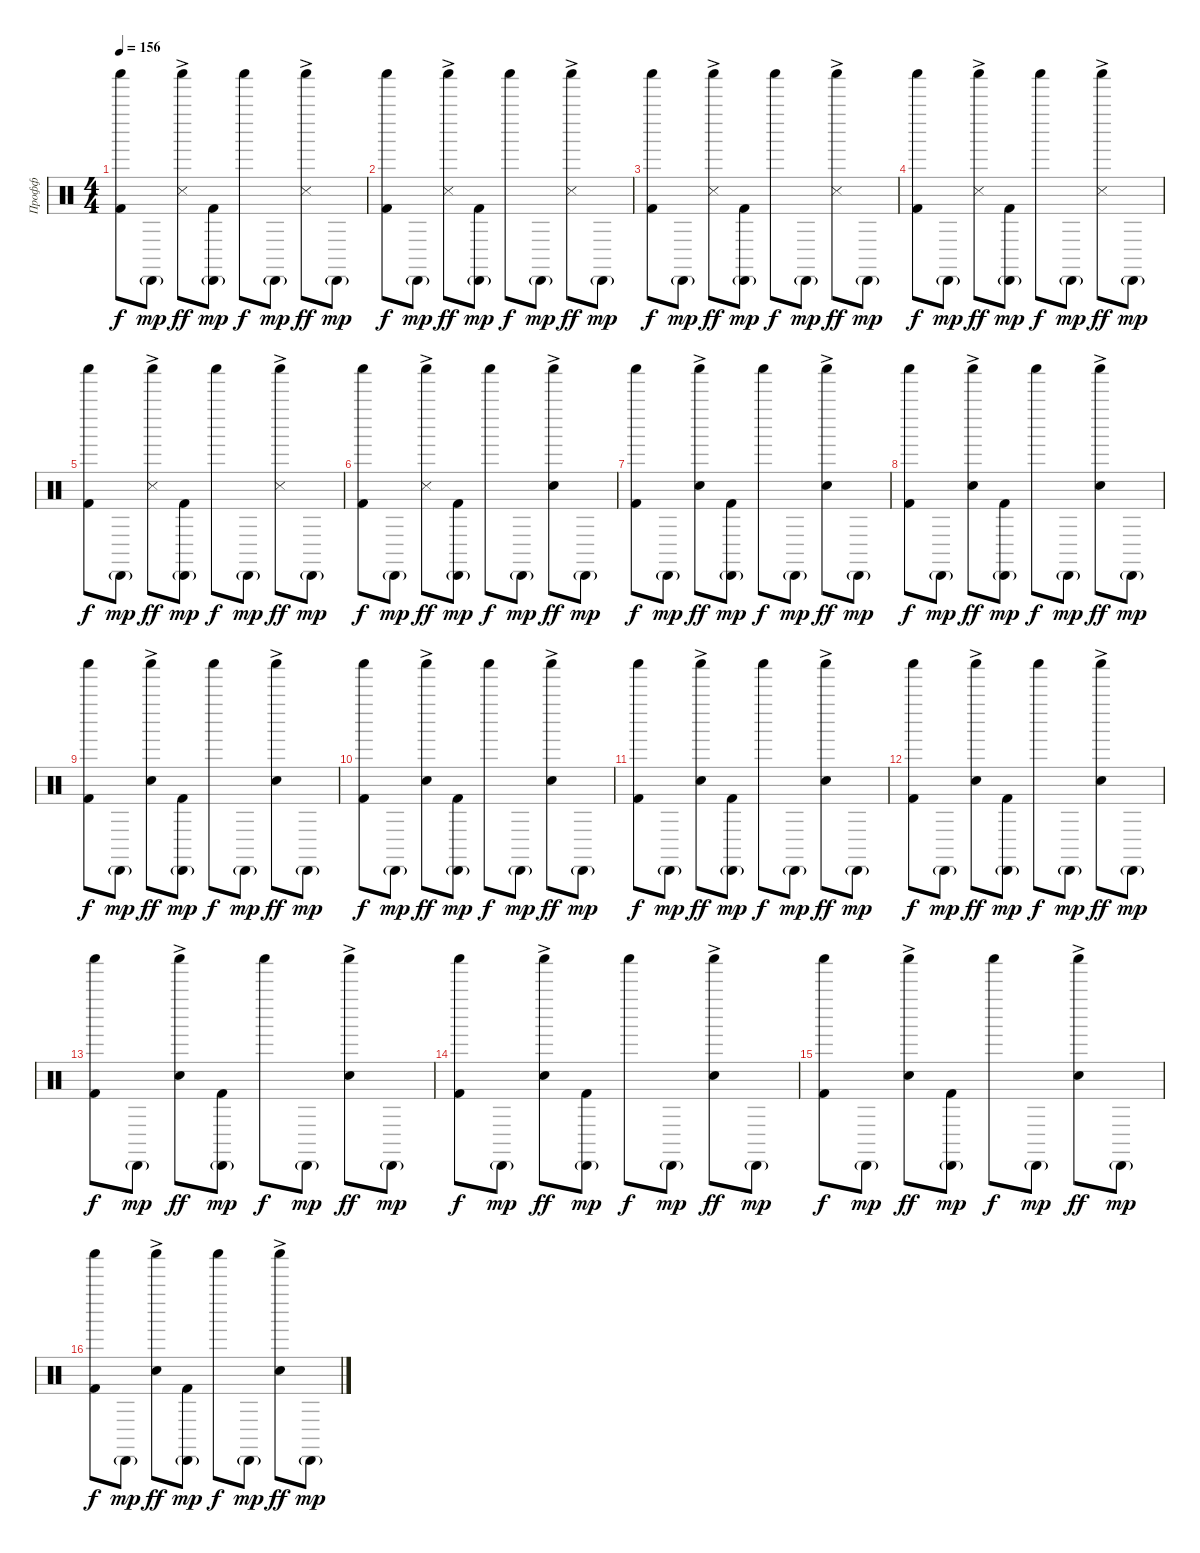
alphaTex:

\track ("Профф" "Профф") {instrument percussion}
\staff {score}
\articulation defaults
\ts (4 4)
\tempo 156
\clef neutral
\ks c
("Shaker (hit)" "Kick (hit) 2").8{dy f} "Cabasa (hit)"{g}.8{dy mp} ("Shaker (hit)"{ac} "Snare (side stick) 3").8{dy ff} ("Cabasa (hit)"{g} "Kick (hit) 2").8{dy mp} "Shaker (hit)".8{dy f} "Cabasa (hit)"{g}.8{dy mp} ("Shaker (hit)"{ac} "Snare (side stick) 3").8{dy ff} "Cabasa (hit)"{g}.8{dy mp} |
("Shaker (hit)" "Kick (hit) 2").8{dy f} "Cabasa (hit)"{g}.8{dy mp} ("Shaker (hit)"{ac} "Snare (side stick) 3").8{dy ff} ("Cabasa (hit)"{g} "Kick (hit) 2").8{dy mp} "Shaker (hit)".8{dy f} "Cabasa (hit)"{g}.8{dy mp} ("Shaker (hit)"{ac} "Snare (side stick) 3").8{dy ff} "Cabasa (hit)"{g}.8{dy mp} |
("Shaker (hit)" "Kick (hit) 2").8{dy f} "Cabasa (hit)"{g}.8{dy mp} ("Shaker (hit)"{ac} "Snare (side stick) 3").8{dy ff} ("Cabasa (hit)"{g} "Kick (hit) 2").8{dy mp} "Shaker (hit)".8{dy f} "Cabasa (hit)"{g}.8{dy mp} ("Shaker (hit)"{ac} "Snare (side stick) 3").8{dy ff} "Cabasa (hit)"{g}.8{dy mp} |
("Shaker (hit)" "Kick (hit) 2").8{dy f} "Cabasa (hit)"{g}.8{dy mp} ("Shaker (hit)"{ac} "Snare (side stick) 3").8{dy ff} ("Cabasa (hit)"{g} "Kick (hit) 2").8{dy mp} "Shaker (hit)".8{dy f} "Cabasa (hit)"{g}.8{dy mp} ("Shaker (hit)"{ac} "Snare (side stick) 3").8{dy ff} "Cabasa (hit)"{g}.8{dy mp} |
("Shaker (hit)" "Kick (hit) 2").8{dy f} "Cabasa (hit)"{g}.8{dy mp} ("Shaker (hit)"{ac} "Snare (side stick) 3").8{dy ff} ("Cabasa (hit)"{g} "Kick (hit) 2").8{dy mp} "Shaker (hit)".8{dy f} "Cabasa (hit)"{g}.8{dy mp} ("Shaker (hit)"{ac} "Snare (side stick) 3").8{dy ff} "Cabasa (hit)"{g}.8{dy mp} |
("Shaker (hit)" "Kick (hit) 2").8{dy f} "Cabasa (hit)"{g}.8{dy mp} ("Shaker (hit)"{ac} "Snare (side stick) 3").8{dy ff} ("Cabasa (hit)"{g} "Kick (hit) 2").8{dy mp} "Shaker (hit)".8{dy f} "Cabasa (hit)"{g}.8{dy mp} ("Shaker (hit)"{ac} "Electric Snare (hit)"{ac}).8{dy ff} "Cabasa (hit)"{g}.8{dy mp} |
("Shaker (hit)" "Kick (hit) 2").8{dy f} "Cabasa (hit)"{g}.8{dy mp} ("Shaker (hit)"{ac} "Electric Snare (hit)").8{dy ff} ("Cabasa (hit)"{g} "Kick (hit) 2").8{dy mp} "Shaker (hit)".8{dy f} "Cabasa (hit)"{g}.8{dy mp} ("Shaker (hit)"{ac} "Electric Snare (hit)").8{dy ff} "Cabasa (hit)"{g}.8{dy mp} |
("Shaker (hit)" "Kick (hit) 2").8{dy f} "Cabasa (hit)"{g}.8{dy mp} ("Shaker (hit)"{ac} "Electric Snare (hit)").8{dy ff} ("Cabasa (hit)"{g} "Kick (hit) 2").8{dy mp} "Shaker (hit)".8{dy f} "Cabasa (hit)"{g}.8{dy mp} ("Shaker (hit)"{ac} "Electric Snare (hit)").8{dy ff} "Cabasa (hit)"{g}.8{dy mp} |
("Shaker (hit)" "Kick (hit) 2").8{dy f} "Cabasa (hit)"{g}.8{dy mp} ("Shaker (hit)"{ac} "Electric Snare (hit)").8{dy ff} ("Cabasa (hit)"{g} "Kick (hit) 2").8{dy mp} "Shaker (hit)".8{dy f} "Cabasa (hit)"{g}.8{dy mp} ("Shaker (hit)"{ac} "Electric Snare (hit)").8{dy ff} "Cabasa (hit)"{g}.8{dy mp} |
("Shaker (hit)" "Kick (hit) 2").8{dy f} "Cabasa (hit)"{g}.8{dy mp} ("Shaker (hit)"{ac} "Electric Snare (hit)").8{dy ff} ("Cabasa (hit)"{g} "Kick (hit) 2").8{dy mp} "Shaker (hit)".8{dy f} "Cabasa (hit)"{g}.8{dy mp} ("Shaker (hit)"{ac} "Electric Snare (hit)").8{dy ff} "Cabasa (hit)"{g}.8{dy mp} |
("Shaker (hit)" "Kick (hit) 2").8{dy f} "Cabasa (hit)"{g}.8{dy mp} ("Shaker (hit)"{ac} "Electric Snare (hit)").8{dy ff} ("Cabasa (hit)"{g} "Kick (hit) 2").8{dy mp} "Shaker (hit)".8{dy f} "Cabasa (hit)"{g}.8{dy mp} ("Shaker (hit)"{ac} "Electric Snare (hit)").8{dy ff} "Cabasa (hit)"{g}.8{dy mp} |
("Shaker (hit)" "Kick (hit) 2").8{dy f} "Cabasa (hit)"{g}.8{dy mp} ("Shaker (hit)"{ac} "Electric Snare (hit)").8{dy ff} ("Cabasa (hit)"{g} "Kick (hit) 2").8{dy mp} "Shaker (hit)".8{dy f} "Cabasa (hit)"{g}.8{dy mp} ("Shaker (hit)"{ac} "Electric Snare (hit)").8{dy ff} "Cabasa (hit)"{g}.8{dy mp} |
("Shaker (hit)" "Kick (hit) 2").8{dy f} "Cabasa (hit)"{g}.8{dy mp} ("Shaker (hit)"{ac} "Electric Snare (hit)").8{dy ff} ("Cabasa (hit)"{g} "Kick (hit) 2").8{dy mp} "Shaker (hit)".8{dy f} "Cabasa (hit)"{g}.8{dy mp} ("Shaker (hit)"{ac} "Electric Snare (hit)").8{dy ff} "Cabasa (hit)"{g}.8{dy mp} |
("Shaker (hit)" "Kick (hit) 2").8{dy f} "Cabasa (hit)"{g}.8{dy mp} ("Shaker (hit)"{ac} "Electric Snare (hit)").8{dy ff} ("Cabasa (hit)"{g} "Kick (hit) 2").8{dy mp} "Shaker (hit)".8{dy f} "Cabasa (hit)"{g}.8{dy mp} ("Shaker (hit)"{ac} "Electric Snare (hit)").8{dy ff} "Cabasa (hit)"{g}.8{dy mp} |
("Shaker (hit)" "Kick (hit) 2").8{dy f} "Cabasa (hit)"{g}.8{dy mp} ("Shaker (hit)"{ac} "Electric Snare (hit)").8{dy ff} ("Cabasa (hit)"{g} "Kick (hit) 2").8{dy mp} "Shaker (hit)".8{dy f} "Cabasa (hit)"{g}.8{dy mp} ("Shaker (hit)"{ac} "Electric Snare (hit)").8{dy ff} "Cabasa (hit)"{g}.8{dy mp} |
("Shaker (hit)" "Kick (hit) 2").8{dy f} "Cabasa (hit)"{g}.8{dy mp} ("Shaker (hit)"{ac} "Electric Snare (hit)").8{dy ff} ("Cabasa (hit)"{g} "Kick (hit) 2").8{dy mp} "Shaker (hit)".8{dy f} "Cabasa (hit)"{g}.8{dy mp} ("Shaker (hit)"{ac} "Electric Snare (hit)").8{dy ff} "Cabasa (hit)"{g}.8{dy mp}
